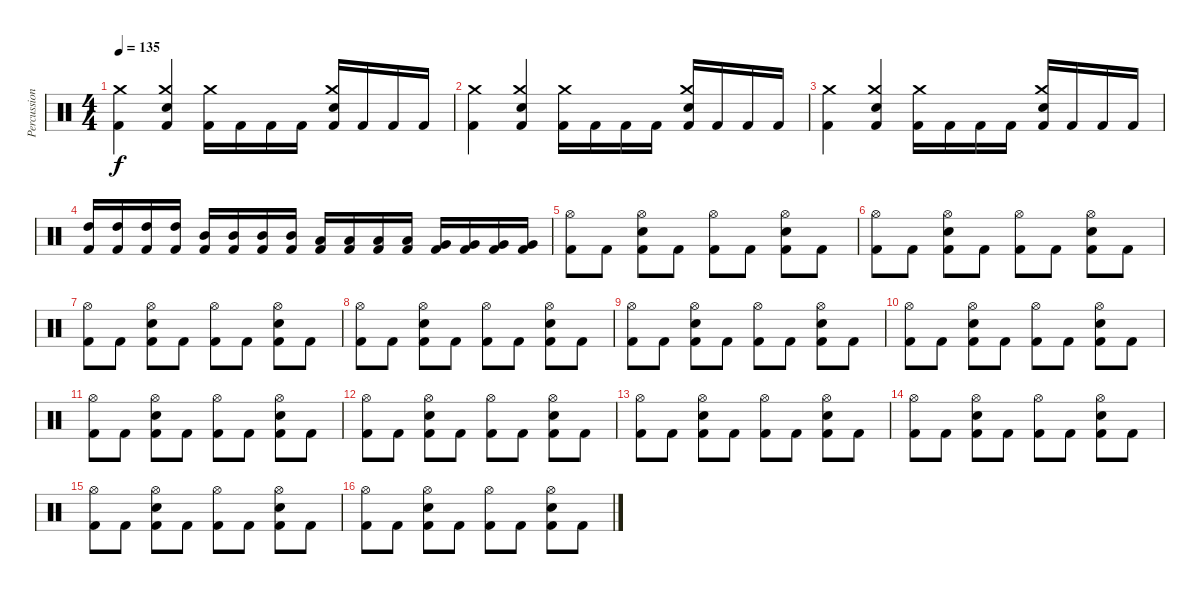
\track ("Percussion" "Percussion") {instrument percussion}
\staff {score}
\articulation defaults
\ts (4 4)
\tempo 135
\clef neutral
\ks c
("Kick (hit) 2" "Crash medium (hit)").4{dy f} ("Kick (hit) 2" "Electric Snare (hit)" "Crash medium (hit)").4 ("Kick (hit) 2" "Crash medium (hit)").16 "Kick (hit) 2".16 "Kick (hit) 2".16 "Kick (hit) 2".16 ("Kick (hit) 2" "Crash medium (hit)" "Electric Snare (hit)").16 "Kick (hit) 2".16 "Kick (hit) 2".16 "Kick (hit) 2".16 |
("Kick (hit) 2" "Crash medium (hit)").4 ("Kick (hit) 2" "Electric Snare (hit)" "Crash medium (hit)").4 ("Kick (hit) 2" "Crash medium (hit)").16 "Kick (hit) 2".16 "Kick (hit) 2".16 "Kick (hit) 2".16 ("Kick (hit) 2" "Crash medium (hit)" "Electric Snare (hit)").16 "Kick (hit) 2".16 "Kick (hit) 2".16 "Kick (hit) 2".16 |
("Kick (hit) 2" "Crash medium (hit)").4 ("Kick (hit) 2" "Electric Snare (hit)" "Crash medium (hit)").4 ("Kick (hit) 2" "Crash medium (hit)").16 "Kick (hit) 2".16 "Kick (hit) 2".16 "Kick (hit) 2".16 ("Kick (hit) 2" "Crash medium (hit)" "Electric Snare (hit)").16 "Kick (hit) 2".16 "Kick (hit) 2".16 "Kick (hit) 2".16 |
("Kick (hit) 2" "High Tom (hit)").16 ("Kick (hit) 2" "High Tom (hit)").16 ("Kick (hit) 2" "High Tom (hit)").16 ("Kick (hit) 2" "High Tom (hit)").16 ("Kick (hit) 2" "Mid Tom (hit)").16 ("Kick (hit) 2" "Mid Tom (hit)").16 ("Kick (hit) 2" "Mid Tom (hit)").16 ("Kick (hit) 2" "Mid Tom (hit)").16 ("Kick (hit) 2" "Low Tom (hit)").16 ("Kick (hit) 2" "Low Tom (hit)").16 ("Kick (hit) 2" "Low Tom (hit)").16 ("Kick (hit) 2" "Low Tom (hit)").16 ("Kick (hit) 2" "Very Low Tom (hit)").16 ("Kick (hit) 2" "Very Low Tom (hit)").16 ("Kick (hit) 2" "Very Low Tom (hit)").16 ("Kick (hit) 2" "Very Low Tom (hit)").16 |
("Kick (hit) 2" "Hi-Hat (open)").8 "Kick (hit) 2".8 ("Kick (hit) 2" "Hi-Hat (open)" "Electric Snare (hit)").8 "Kick (hit) 2".8 ("Kick (hit) 2" "Hi-Hat (open)").8 "Kick (hit) 2".8 ("Kick (hit) 2" "Hi-Hat (open)" "Electric Snare (hit)").8 "Kick (hit) 2".8 |
("Kick (hit) 2" "Hi-Hat (open)").8 "Kick (hit) 2".8 ("Kick (hit) 2" "Hi-Hat (open)" "Electric Snare (hit)").8 "Kick (hit) 2".8 ("Kick (hit) 2" "Hi-Hat (open)").8 "Kick (hit) 2".8 ("Kick (hit) 2" "Hi-Hat (open)" "Electric Snare (hit)").8 "Kick (hit) 2".8 |
("Kick (hit) 2" "Hi-Hat (open)").8 "Kick (hit) 2".8 ("Kick (hit) 2" "Hi-Hat (open)" "Electric Snare (hit)").8 "Kick (hit) 2".8 ("Kick (hit) 2" "Hi-Hat (open)").8 "Kick (hit) 2".8 ("Kick (hit) 2" "Hi-Hat (open)" "Electric Snare (hit)").8 "Kick (hit) 2".8 |
("Kick (hit) 2" "Hi-Hat (open)").8 "Kick (hit) 2".8 ("Kick (hit) 2" "Hi-Hat (open)" "Electric Snare (hit)").8 "Kick (hit) 2".8 ("Kick (hit) 2" "Hi-Hat (open)").8 "Kick (hit) 2".8 ("Kick (hit) 2" "Hi-Hat (open)" "Electric Snare (hit)").8 "Kick (hit) 2".8 |
("Kick (hit) 2" "Hi-Hat (open)").8 "Kick (hit) 2".8 ("Kick (hit) 2" "Hi-Hat (open)" "Electric Snare (hit)").8 "Kick (hit) 2".8 ("Kick (hit) 2" "Hi-Hat (open)").8 "Kick (hit) 2".8 ("Kick (hit) 2" "Hi-Hat (open)" "Electric Snare (hit)").8 "Kick (hit) 2".8 |
("Kick (hit) 2" "Hi-Hat (open)").8 "Kick (hit) 2".8 ("Kick (hit) 2" "Hi-Hat (open)" "Electric Snare (hit)").8 "Kick (hit) 2".8 ("Kick (hit) 2" "Hi-Hat (open)").8 "Kick (hit) 2".8 ("Kick (hit) 2" "Hi-Hat (open)" "Electric Snare (hit)").8 "Kick (hit) 2".8 |
("Kick (hit) 2" "Hi-Hat (open)").8 "Kick (hit) 2".8 ("Kick (hit) 2" "Hi-Hat (open)" "Electric Snare (hit)").8 "Kick (hit) 2".8 ("Kick (hit) 2" "Hi-Hat (open)").8 "Kick (hit) 2".8 ("Kick (hit) 2" "Hi-Hat (open)" "Electric Snare (hit)").8 "Kick (hit) 2".8 |
("Kick (hit) 2" "Hi-Hat (open)").8 "Kick (hit) 2".8 ("Kick (hit) 2" "Hi-Hat (open)" "Electric Snare (hit)").8 "Kick (hit) 2".8 ("Kick (hit) 2" "Hi-Hat (open)").8 "Kick (hit) 2".8 ("Kick (hit) 2" "Hi-Hat (open)" "Electric Snare (hit)").8 "Kick (hit) 2".8 |
("Kick (hit) 2" "Hi-Hat (open)").8 "Kick (hit) 2".8 ("Kick (hit) 2" "Hi-Hat (open)" "Electric Snare (hit)").8 "Kick (hit) 2".8 ("Kick (hit) 2" "Hi-Hat (open)").8 "Kick (hit) 2".8 ("Kick (hit) 2" "Hi-Hat (open)" "Electric Snare (hit)").8 "Kick (hit) 2".8 |
("Kick (hit) 2" "Hi-Hat (open)").8 "Kick (hit) 2".8 ("Kick (hit) 2" "Hi-Hat (open)" "Electric Snare (hit)").8 "Kick (hit) 2".8 ("Kick (hit) 2" "Hi-Hat (open)").8 "Kick (hit) 2".8 ("Kick (hit) 2" "Hi-Hat (open)" "Electric Snare (hit)").8 "Kick (hit) 2".8 |
("Kick (hit) 2" "Hi-Hat (open)").8 "Kick (hit) 2".8 ("Kick (hit) 2" "Hi-Hat (open)" "Electric Snare (hit)").8 "Kick (hit) 2".8 ("Kick (hit) 2" "Hi-Hat (open)").8 "Kick (hit) 2".8 ("Kick (hit) 2" "Hi-Hat (open)" "Electric Snare (hit)").8 "Kick (hit) 2".8 |
("Kick (hit) 2" "Hi-Hat (open)").8 "Kick (hit) 2".8 ("Kick (hit) 2" "Hi-Hat (open)" "Electric Snare (hit)").8 "Kick (hit) 2".8 ("Kick (hit) 2" "Hi-Hat (open)").8 "Kick (hit) 2".8 ("Kick (hit) 2" "Hi-Hat (open)" "Electric Snare (hit)").8 "Kick (hit) 2".8
